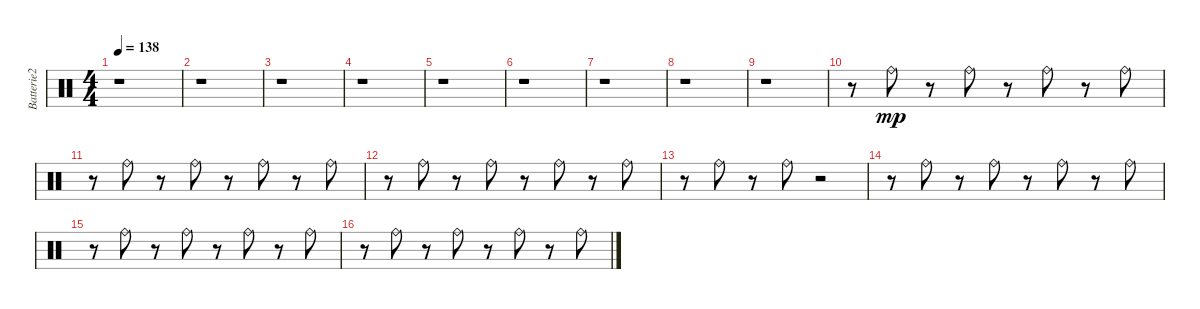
\track ("Batterie2" "Batterie2") {instrument percussion}
\staff {score}
\articulation defaults
\ts (4 4)
\tempo 138
\clef neutral
\ks c
r.1{dy mp} |
r.1 |
r.1 |
r.1 |
r.1 |
r.1 |
r.1 |
r.1 |
r.1 |
r.8 "Ride (bell)".8 r.8 "Ride (bell)".8 r.8 "Ride (bell)".8 r.8 "Ride (bell)".8 |
r.8 "Ride (bell)".8 r.8 "Ride (bell)".8 r.8 "Ride (bell)".8 r.8 "Ride (bell)".8 |
r.8 "Ride (bell)".8 r.8 "Ride (bell)".8 r.8 "Ride (bell)".8 r.8 "Ride (bell)".8 |
r.8 "Ride (bell)".8 r.8 "Ride (bell)".8 r.2 |
r.8 "Ride (bell)".8 r.8 "Ride (bell)".8 r.8 "Ride (bell)".8 r.8 "Ride (bell)".8 |
r.8 "Ride (bell)".8 r.8 "Ride (bell)".8 r.8 "Ride (bell)".8 r.8 "Ride (bell)".8 |
r.8 "Ride (bell)".8 r.8 "Ride (bell)".8 r.8 "Ride (bell)".8 r.8 "Ride (bell)".8
